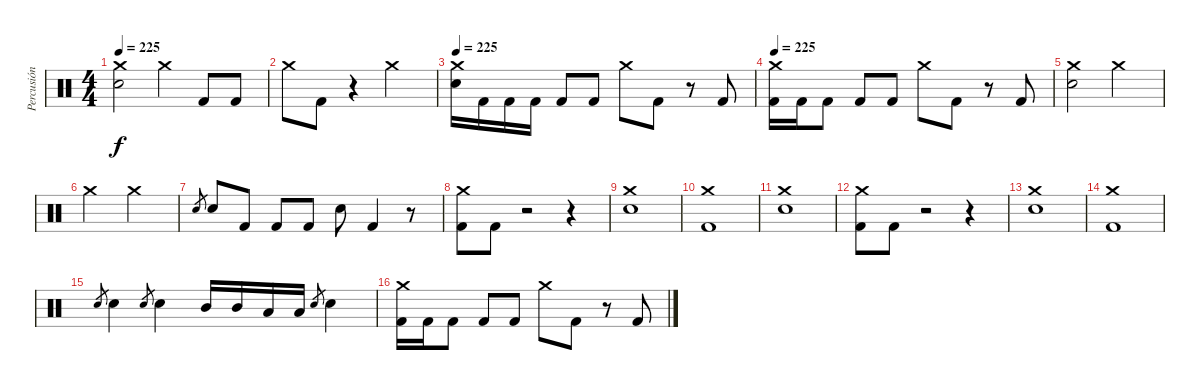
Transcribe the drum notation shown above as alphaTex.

\track ("Percusión" "Percusión") {instrument percussion}
\staff {score}
\articulation defaults
\ts (4 4)
\tempo 225
\clef neutral
\ks c
("Crash medium (hit)" "Electric Snare (hit)").2{dy f} "Crash medium (hit)".4 "Kick (hit) 2".8 "Kick (hit) 2".8 |
"Crash medium (hit)".8 "Kick (hit) 2".8 r.4 "Crash medium (hit)".2 |
\tempo 225
("Crash medium (hit)" "Electric Snare (hit)").16 "Kick (hit) 2".16 "Kick (hit) 2".16 "Kick (hit) 2".16 "Kick (hit) 2".8 "Kick (hit) 2".8 "Crash medium (hit)".8 "Kick (hit) 2".8 r.8 "Kick (hit) 2".8 |
\tempo 225
("Crash medium (hit)" "Kick (hit) 2").16 "Kick (hit) 2".16 "Kick (hit) 2".8 "Kick (hit) 2".8 "Kick (hit) 2".8 "Crash medium (hit)".8 "Kick (hit) 2".8 r.8 "Kick (hit) 2".8 |
("Crash medium (hit)" "Electric Snare (hit)").2 "Crash medium (hit)".2 |
"Crash medium (hit)".2 "Crash medium (hit)".2 |
"Electric Snare (hit)".8{gr} "Electric Snare (hit)".8 "Kick (hit) 2".8 "Kick (hit) 2".8 "Kick (hit) 2".8 "Electric Snare (hit)".8 "Kick (hit) 2".4 r.8 |
("Crash medium (hit)" "Kick (hit) 2").8 "Kick (hit) 2".8 r.2 r.4 |
("Crash medium (hit)" "Electric Snare (hit)").1 |
("Crash medium (hit)" "Kick (hit) 2").1 |
("Crash medium (hit)" "Electric Snare (hit)").1 |
("Crash medium (hit)" "Kick (hit) 2").8 "Kick (hit) 2".8 r.2 r.4 |
("Crash medium (hit)" "Electric Snare (hit)").1 |
("Crash medium (hit)" "Kick (hit) 2").1 |
"Electric Snare (hit)".8{gr} "Electric Snare (hit)".4 "Electric Snare (hit)".8{gr} "Electric Snare (hit)".4 "Mid Tom (hit)".16 "Mid Tom (hit)".16 "Low Tom (hit)".16 "Low Tom (hit)".16 "Electric Snare (hit)".8{gr} "Electric Snare (hit)".4 |
("Crash medium (hit)" "Kick (hit) 2").16 "Kick (hit) 2".16 "Kick (hit) 2".8 "Kick (hit) 2".8 "Kick (hit) 2".8 "Crash medium (hit)".8 "Kick (hit) 2".8 r.8 "Kick (hit) 2".8
